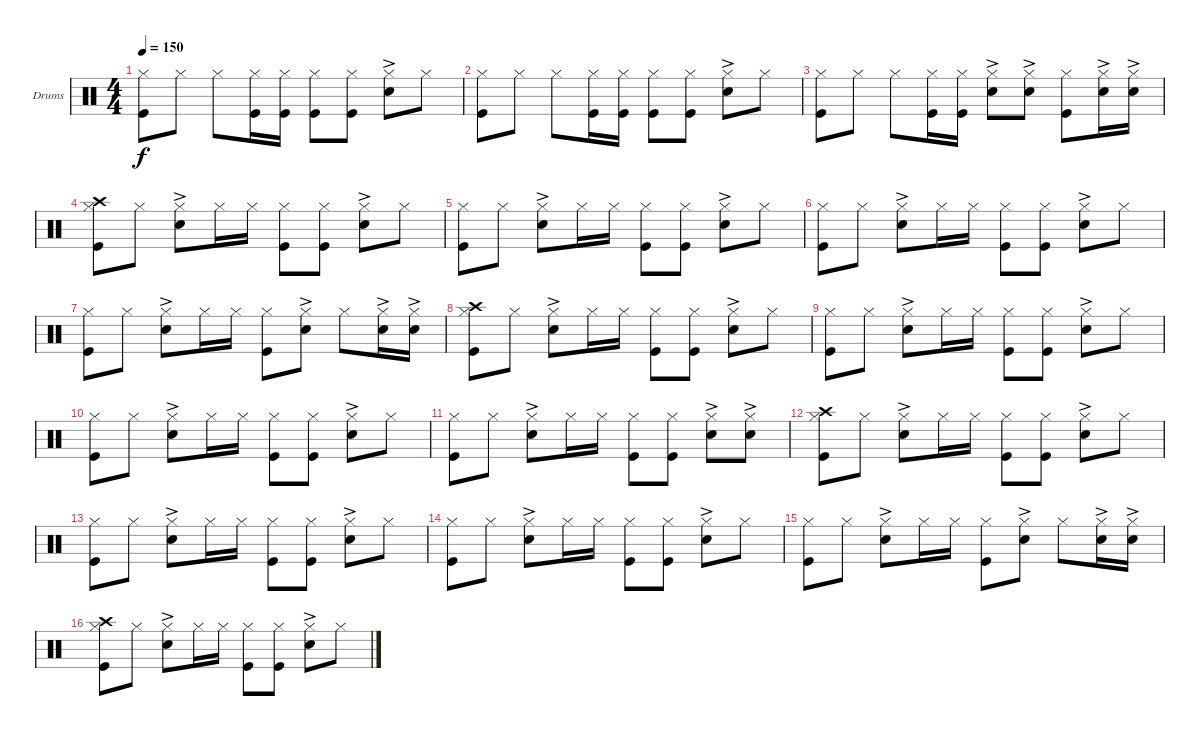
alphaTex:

\defaultSystemsLayout 4
\bracketExtendMode groupsimilarinstruments
\firstSystemTrackNameOrientation horizontal
\otherSystemsTrackNameOrientation horizontal
\track ("Drumkit" "Drums") {instrument percussion}
\staff {score}
\articulation defaults
\ts (4 4)
\tempo 150
\clef neutral
\ks c
("Kick (hit)" "Hi-Hat (closed)").8{dy f} "Hi-Hat (closed)".8 "Hi-Hat (closed)".8 ("Kick (hit)" "Hi-Hat (closed)").16 ("Kick (hit)" "Hi-Hat (closed)").16 ("Kick (hit)" "Hi-Hat (closed)").8 ("Kick (hit)" "Hi-Hat (closed)").8 ("Snare (hit) 2"{ac} "Hi-Hat (closed)").8 "Hi-Hat (closed)".8 |
("Kick (hit)" "Hi-Hat (closed)").8 "Hi-Hat (closed)".8 "Hi-Hat (closed)".8 ("Kick (hit)" "Hi-Hat (closed)").16 ("Kick (hit)" "Hi-Hat (closed)").16 ("Kick (hit)" "Hi-Hat (closed)").8 ("Kick (hit)" "Hi-Hat (closed)").8 ("Snare (hit) 2"{ac} "Hi-Hat (closed)").8 "Hi-Hat (closed)".8 |
("Kick (hit)" "Hi-Hat (closed)").8 "Hi-Hat (closed)".8 "Hi-Hat (closed)".8 ("Kick (hit)" "Hi-Hat (closed)").16 ("Kick (hit)" "Hi-Hat (closed)").16 ("Snare (hit) 2"{ac} "Hi-Hat (closed)").8 ("Snare (hit) 2"{ac} "Hi-Hat (closed)").8 ("Kick (hit)" "Hi-Hat (closed)").8 ("Snare (hit) 2"{ac} "Hi-Hat (closed)").16 ("Snare (hit) 2"{ac} "Hi-Hat (closed)").16 |
("Kick (hit)" "Hi-Hat (closed)" "Crash high (hit)").8 "Hi-Hat (closed)".8 ("Snare (hit) 2"{ac} "Hi-Hat (closed)").8 "Hi-Hat (closed)".16 "Hi-Hat (closed)".16 ("Kick (hit)" "Hi-Hat (closed)").8 ("Kick (hit)" "Hi-Hat (closed)").8 ("Snare (hit) 2"{ac} "Hi-Hat (closed)").8 "Hi-Hat (closed)".8 |
("Kick (hit)" "Hi-Hat (closed)").8 "Hi-Hat (closed)".8 ("Snare (hit) 2"{ac} "Hi-Hat (closed)").8 "Hi-Hat (closed)".16 "Hi-Hat (closed)".16 ("Kick (hit)" "Hi-Hat (closed)").8 ("Kick (hit)" "Hi-Hat (closed)").8 ("Snare (hit) 2"{ac} "Hi-Hat (closed)").8 "Hi-Hat (closed)".8 |
("Kick (hit)" "Hi-Hat (closed)").8 "Hi-Hat (closed)".8 ("Snare (hit) 2"{ac} "Hi-Hat (closed)").8 "Hi-Hat (closed)".16 "Hi-Hat (closed)".16 ("Kick (hit)" "Hi-Hat (closed)").8 ("Kick (hit)" "Hi-Hat (closed)").8 ("Snare (hit) 2"{ac} "Hi-Hat (closed)").8 "Hi-Hat (closed)".8 |
("Kick (hit)" "Hi-Hat (closed)").8 "Hi-Hat (closed)".8 ("Snare (hit) 2"{ac} "Hi-Hat (closed)").8 "Hi-Hat (closed)".16 "Hi-Hat (closed)".16 ("Kick (hit)" "Hi-Hat (closed)").8 ("Snare (hit) 2"{ac} "Hi-Hat (closed)").8 "Hi-Hat (closed)".8 ("Snare (hit) 2"{ac} "Hi-Hat (closed)").16 ("Snare (hit) 2"{ac} "Hi-Hat (closed)").16 |
("Kick (hit)" "Hi-Hat (closed)" "Crash high (hit)").8 "Hi-Hat (closed)".8 ("Snare (hit) 2"{ac} "Hi-Hat (closed)").8 "Hi-Hat (closed)".16 "Hi-Hat (closed)".16 ("Kick (hit)" "Hi-Hat (closed)").8 ("Kick (hit)" "Hi-Hat (closed)").8 ("Snare (hit) 2"{ac} "Hi-Hat (closed)").8 "Hi-Hat (closed)".8 |
("Kick (hit)" "Hi-Hat (closed)").8 "Hi-Hat (closed)".8 ("Snare (hit) 2"{ac} "Hi-Hat (closed)").8 "Hi-Hat (closed)".16 "Hi-Hat (closed)".16 ("Kick (hit)" "Hi-Hat (closed)").8 ("Kick (hit)" "Hi-Hat (closed)").8 ("Snare (hit) 2"{ac} "Hi-Hat (closed)").8 "Hi-Hat (closed)".8 |
("Kick (hit)" "Hi-Hat (closed)").8 "Hi-Hat (closed)".8 ("Snare (hit) 2"{ac} "Hi-Hat (closed)").8 "Hi-Hat (closed)".16 "Hi-Hat (closed)".16 ("Kick (hit)" "Hi-Hat (closed)").8 ("Kick (hit)" "Hi-Hat (closed)").8 ("Snare (hit) 2"{ac} "Hi-Hat (closed)").8 "Hi-Hat (closed)".8 |
("Kick (hit)" "Hi-Hat (closed)").8 "Hi-Hat (closed)".8 ("Snare (hit) 2"{ac} "Hi-Hat (closed)").8 "Hi-Hat (closed)".16 "Hi-Hat (closed)".16 ("Kick (hit)" "Hi-Hat (closed)").8 ("Kick (hit)" "Hi-Hat (closed)").8 ("Snare (hit) 2"{ac} "Hi-Hat (closed)").8 ("Hi-Hat (closed)" "Snare (hit) 2"{ac}).8 |
("Kick (hit)" "Hi-Hat (closed)" "Crash high (hit)").8 "Hi-Hat (closed)".8 ("Snare (hit) 2"{ac} "Hi-Hat (closed)").8 "Hi-Hat (closed)".16 "Hi-Hat (closed)".16 ("Kick (hit)" "Hi-Hat (closed)").8 ("Kick (hit)" "Hi-Hat (closed)").8 ("Snare (hit) 2"{ac} "Hi-Hat (closed)").8 "Hi-Hat (closed)".8 |
("Kick (hit)" "Hi-Hat (closed)").8 "Hi-Hat (closed)".8 ("Snare (hit) 2"{ac} "Hi-Hat (closed)").8 "Hi-Hat (closed)".16 "Hi-Hat (closed)".16 ("Kick (hit)" "Hi-Hat (closed)").8 ("Kick (hit)" "Hi-Hat (closed)").8 ("Snare (hit) 2"{ac} "Hi-Hat (closed)").8 "Hi-Hat (closed)".8 |
("Kick (hit)" "Hi-Hat (closed)").8 "Hi-Hat (closed)".8 ("Snare (hit) 2"{ac} "Hi-Hat (closed)").8 "Hi-Hat (closed)".16 "Hi-Hat (closed)".16 ("Kick (hit)" "Hi-Hat (closed)").8 ("Kick (hit)" "Hi-Hat (closed)").8 ("Snare (hit) 2"{ac} "Hi-Hat (closed)").8 "Hi-Hat (closed)".8 |
("Kick (hit)" "Hi-Hat (closed)").8 "Hi-Hat (closed)".8 ("Snare (hit) 2"{ac} "Hi-Hat (closed)").8 "Hi-Hat (closed)".16 "Hi-Hat (closed)".16 ("Kick (hit)" "Hi-Hat (closed)").8 ("Snare (hit) 2"{ac} "Hi-Hat (closed)").8 "Hi-Hat (closed)".8 ("Snare (hit) 2"{ac} "Hi-Hat (closed)").16 ("Snare (hit) 2"{ac} "Hi-Hat (closed)").16 |
("Kick (hit)" "Hi-Hat (closed)" "Crash high (hit)").8 "Hi-Hat (closed)".8 ("Snare (hit) 2"{ac} "Hi-Hat (closed)").8 "Hi-Hat (closed)".16 "Hi-Hat (closed)".16 ("Kick (hit)" "Hi-Hat (closed)").8 ("Kick (hit)" "Hi-Hat (closed)").8 ("Snare (hit) 2"{ac} "Hi-Hat (closed)").8 "Hi-Hat (closed)".8
